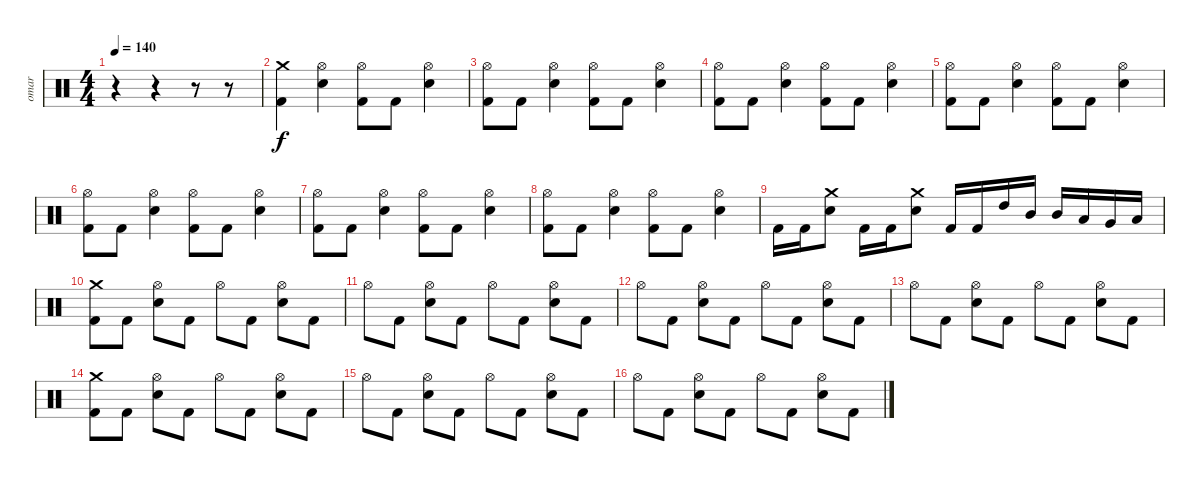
\track ("omar" "omar") {instrument percussion}
\staff {score}
\articulation defaults
\ts (4 4)
\tempo 140
\clef neutral
\ks c
r.4{dy f} r.4 r.8 r.8 |
("Crash medium (hit)" "Kick (hit) 2").4 ("Hi-Hat (open)" "Electric Snare (hit)").4 ("Hi-Hat (open)" "Kick (hit) 2").8 "Kick (hit) 2".8 ("Hi-Hat (open)" "Electric Snare (hit)").4 |
("Hi-Hat (open)" "Kick (hit) 2").8 "Kick (hit) 2".8 ("Hi-Hat (open)" "Electric Snare (hit)").4 ("Hi-Hat (open)" "Kick (hit) 2").8 "Kick (hit) 2".8 ("Hi-Hat (open)" "Electric Snare (hit)").4 |
("Hi-Hat (open)" "Kick (hit) 2").8 "Kick (hit) 2".8 ("Hi-Hat (open)" "Electric Snare (hit)").4 ("Hi-Hat (open)" "Kick (hit) 2").8 "Kick (hit) 2".8 ("Hi-Hat (open)" "Electric Snare (hit)").4 |
("Hi-Hat (open)" "Kick (hit) 2").8 "Kick (hit) 2".8 ("Hi-Hat (open)" "Electric Snare (hit)").4 ("Hi-Hat (open)" "Kick (hit) 2").8 "Kick (hit) 2".8 ("Hi-Hat (open)" "Electric Snare (hit)").4 |
("Hi-Hat (open)" "Kick (hit) 2").8 "Kick (hit) 2".8 ("Hi-Hat (open)" "Electric Snare (hit)").4 ("Hi-Hat (open)" "Kick (hit) 2").8 "Kick (hit) 2".8 ("Hi-Hat (open)" "Electric Snare (hit)").4 |
("Hi-Hat (open)" "Kick (hit) 2").8 "Kick (hit) 2".8 ("Hi-Hat (open)" "Electric Snare (hit)").4 ("Hi-Hat (open)" "Kick (hit) 2").8 "Kick (hit) 2".8 ("Hi-Hat (open)" "Electric Snare (hit)").4 |
("Hi-Hat (open)" "Kick (hit) 2").8 "Kick (hit) 2".8 ("Hi-Hat (open)" "Electric Snare (hit)").4 ("Hi-Hat (open)" "Kick (hit) 2").8 "Kick (hit) 2".8 ("Hi-Hat (open)" "Electric Snare (hit)").4 |
"Kick (hit) 2".16 "Kick (hit) 2".16 ("Crash medium (hit)" "Electric Snare (hit)").8 "Kick (hit) 2".16 "Kick (hit) 2".16 ("Crash medium (hit)" "Electric Snare (hit)").8 "Kick (hit) 2".16 "Kick (hit) 2".16 "High Tom (hit)".16 "Mid Tom (hit)".16 "Mid Tom (hit)".16 "Low Tom (hit)".16 "Very Low Tom (hit)".16 "Low Floor Tom (hit)".16 |
("Crash medium (hit)" "Kick (hit) 2").8 "Kick (hit) 2".8 ("Hi-Hat (open)" "Electric Snare (hit)").8 "Kick (hit) 2".8 "Hi-Hat (open)".8 "Kick (hit) 2".8 ("Hi-Hat (open)" "Electric Snare (hit)").8 "Kick (hit) 2".8 |
"Hi-Hat (open)".8 "Kick (hit) 2".8 ("Hi-Hat (open)" "Electric Snare (hit)").8 "Kick (hit) 2".8 "Hi-Hat (open)".8 "Kick (hit) 2".8 ("Hi-Hat (open)" "Electric Snare (hit)").8 "Kick (hit) 2".8 |
"Hi-Hat (open)".8 "Kick (hit) 2".8 ("Hi-Hat (open)" "Electric Snare (hit)").8 "Kick (hit) 2".8 "Hi-Hat (open)".8 "Kick (hit) 2".8 ("Hi-Hat (open)" "Electric Snare (hit)").8 "Kick (hit) 2".8 |
"Hi-Hat (open)".8 "Kick (hit) 2".8 ("Hi-Hat (open)" "Electric Snare (hit)").8 "Kick (hit) 2".8 "Hi-Hat (open)".8 "Kick (hit) 2".8 ("Hi-Hat (open)" "Electric Snare (hit)").8 "Kick (hit) 2".8 |
("Crash medium (hit)" "Kick (hit) 2").8 "Kick (hit) 2".8 ("Hi-Hat (open)" "Electric Snare (hit)").8 "Kick (hit) 2".8 "Hi-Hat (open)".8 "Kick (hit) 2".8 ("Hi-Hat (open)" "Electric Snare (hit)").8 "Kick (hit) 2".8 |
"Hi-Hat (open)".8 "Kick (hit) 2".8 ("Hi-Hat (open)" "Electric Snare (hit)").8 "Kick (hit) 2".8 "Hi-Hat (open)".8 "Kick (hit) 2".8 ("Hi-Hat (open)" "Electric Snare (hit)").8 "Kick (hit) 2".8 |
"Hi-Hat (open)".8 "Kick (hit) 2".8 ("Hi-Hat (open)" "Electric Snare (hit)").8 "Kick (hit) 2".8 "Hi-Hat (open)".8 "Kick (hit) 2".8 ("Hi-Hat (open)" "Electric Snare (hit)").8 "Kick (hit) 2".8
